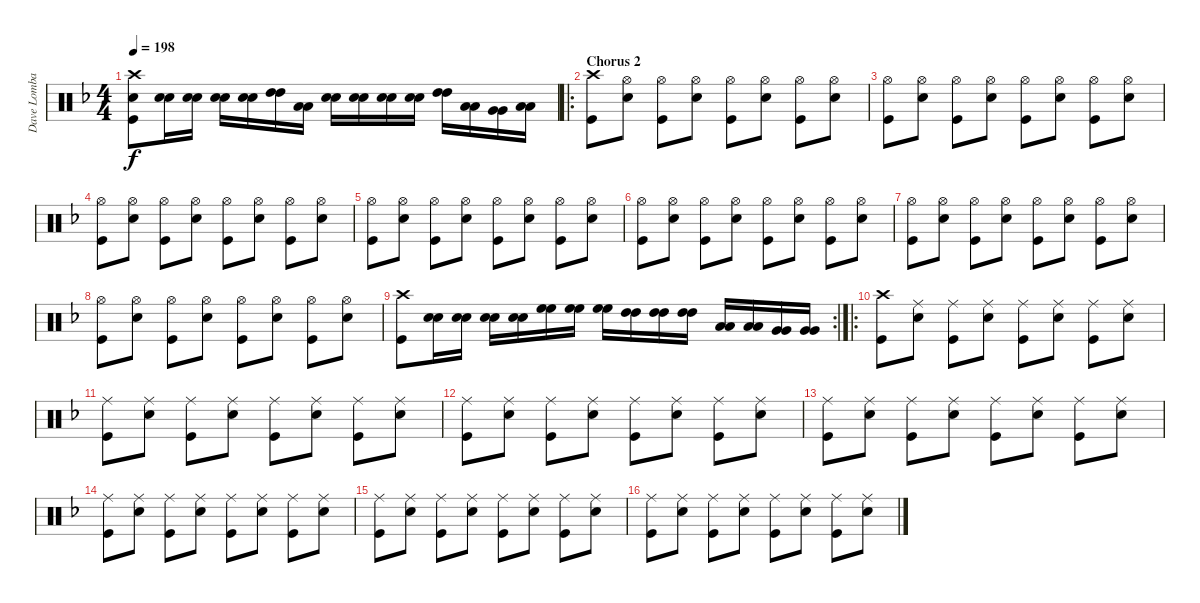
\track ("Dave Lombardo - Drums" "Dave Lomba") {instrument percussion}
\staff {score}
\articulation defaults
\ts (4 4)
\tempo 198
\clef neutral
\ks f
("Crash high (hit)" "Snare (hit) 2" "Kick (hit)").8{dy f} ("Snare (hit) 2" "Snare (hit) 2").16 ("Snare (hit) 2" "Snare (hit) 2").16 ("Snare (hit) 2" "Snare (hit) 2").16 ("Snare (hit) 2" "Snare (hit) 2").16 ("High Tom (hit)" "High Tom (hit)").16 ("Low Tom (hit)" "Low Tom (hit)").16 ("Snare (hit) 2" "Snare (hit) 2").16 ("Snare (hit) 2" "Snare (hit) 2").16 ("Snare (hit) 2" "Snare (hit) 2").16 ("Snare (hit) 2" "Snare (hit) 2").16 ("High Tom (hit)" "High Tom (hit)").16 ("Low Tom (hit)" "Low Tom (hit)").16 ("Very Low Tom (hit)" "Very Low Tom (hit)").16 ("Low Floor Tom (hit)" "Low Floor Tom (hit)").16 |
\ro
\section ("" "Chorus 2")
("Crash high (hit)" "Kick (hit)").8 ("Hi-Hat (open)" "Snare (hit) 2").8 ("Hi-Hat (open)" "Kick (hit)").8 ("Hi-Hat (open)" "Snare (hit) 2").8 ("Hi-Hat (open)" "Kick (hit)").8 ("Hi-Hat (open)" "Snare (hit) 2").8 ("Hi-Hat (open)" "Kick (hit)").8 ("Hi-Hat (open)" "Snare (hit) 2").8 |
("Hi-Hat (open)" "Kick (hit)").8 ("Hi-Hat (open)" "Snare (hit) 2").8 ("Hi-Hat (open)" "Kick (hit)").8 ("Hi-Hat (open)" "Snare (hit) 2").8 ("Hi-Hat (open)" "Kick (hit)").8 ("Hi-Hat (open)" "Snare (hit) 2").8 ("Hi-Hat (open)" "Kick (hit)").8 ("Hi-Hat (open)" "Snare (hit) 2").8 |
("Hi-Hat (open)" "Kick (hit)").8 ("Hi-Hat (open)" "Snare (hit) 2").8 ("Hi-Hat (open)" "Kick (hit)").8 ("Hi-Hat (open)" "Snare (hit) 2").8 ("Hi-Hat (open)" "Kick (hit)").8 ("Hi-Hat (open)" "Snare (hit) 2").8 ("Hi-Hat (open)" "Kick (hit)").8 ("Hi-Hat (open)" "Snare (hit) 2").8 |
("Hi-Hat (open)" "Kick (hit)").8 ("Hi-Hat (open)" "Snare (hit) 2").8 ("Hi-Hat (open)" "Kick (hit)").8 ("Hi-Hat (open)" "Snare (hit) 2").8 ("Hi-Hat (open)" "Kick (hit)").8 ("Hi-Hat (open)" "Snare (hit) 2").8 ("Hi-Hat (open)" "Kick (hit)").8 ("Hi-Hat (open)" "Snare (hit) 2").8 |
("Hi-Hat (open)" "Kick (hit)").8 ("Hi-Hat (open)" "Snare (hit) 2").8 ("Hi-Hat (open)" "Kick (hit)").8 ("Hi-Hat (open)" "Snare (hit) 2").8 ("Hi-Hat (open)" "Kick (hit)").8 ("Hi-Hat (open)" "Snare (hit) 2").8 ("Hi-Hat (open)" "Kick (hit)").8 ("Hi-Hat (open)" "Snare (hit) 2").8 |
("Hi-Hat (open)" "Kick (hit)").8 ("Hi-Hat (open)" "Snare (hit) 2").8 ("Hi-Hat (open)" "Kick (hit)").8 ("Hi-Hat (open)" "Snare (hit) 2").8 ("Hi-Hat (open)" "Kick (hit)").8 ("Hi-Hat (open)" "Snare (hit) 2").8 ("Hi-Hat (open)" "Kick (hit)").8 ("Hi-Hat (open)" "Snare (hit) 2").8 |
("Hi-Hat (open)" "Kick (hit)").8 ("Hi-Hat (open)" "Snare (hit) 2").8 ("Hi-Hat (open)" "Kick (hit)").8 ("Hi-Hat (open)" "Snare (hit) 2").8 ("Hi-Hat (open)" "Kick (hit)").8 ("Hi-Hat (open)" "Snare (hit) 2").8 ("Hi-Hat (open)" "Kick (hit)").8 ("Hi-Hat (open)" "Snare (hit) 2").8 |
\rc 2
("Crash high (hit)" "Kick (hit)").8 ("Snare (hit) 2" "Snare (hit) 2").16 ("Snare (hit) 2" "Snare (hit) 2").16 ("Snare (hit) 2" "Snare (hit) 2").16 ("Snare (hit) 2" "Snare (hit) 2").16 ("High Floor Tom (hit)" "High Floor Tom (hit)").16 ("High Floor Tom (hit)" "High Floor Tom (hit)").16 ("High Floor Tom (hit)" "High Floor Tom (hit)").16 ("High Tom (hit)" "High Tom (hit)").16 ("High Tom (hit)" "High Tom (hit)").16 ("High Tom (hit)" "High Tom (hit)").16 ("Low Tom (hit)" "Low Tom (hit)").16 ("Low Tom (hit)" "Low Tom (hit)").16 ("Very Low Tom (hit)" "Very Low Tom (hit)").16 ("Very Low Tom (hit)" "Very Low Tom (hit)").16 |
\ro
("Crash high (hit)" "Kick (hit)").8 ("Ride (middle)" "Snare (hit) 2").8 ("Ride (middle)" "Kick (hit)").8 ("Ride (middle)" "Snare (hit) 2").8 ("Ride (middle)" "Kick (hit)").8 ("Ride (middle)" "Snare (hit) 2").8 ("Ride (middle)" "Kick (hit)").8 ("Ride (middle)" "Snare (hit) 2").8 |
("Ride (middle)" "Kick (hit)").8 ("Ride (middle)" "Snare (hit) 2").8 ("Ride (middle)" "Kick (hit)").8 ("Ride (middle)" "Snare (hit) 2").8 ("Ride (middle)" "Kick (hit)").8 ("Ride (middle)" "Snare (hit) 2").8 ("Ride (middle)" "Kick (hit)").8 ("Ride (middle)" "Snare (hit) 2").8 |
("Ride (middle)" "Kick (hit)").8 ("Ride (middle)" "Snare (hit) 2").8 ("Ride (middle)" "Kick (hit)").8 ("Ride (middle)" "Snare (hit) 2").8 ("Ride (middle)" "Kick (hit)").8 ("Ride (middle)" "Snare (hit) 2").8 ("Ride (middle)" "Kick (hit)").8 ("Ride (middle)" "Snare (hit) 2").8 |
("Ride (middle)" "Kick (hit)").8 ("Ride (middle)" "Snare (hit) 2").8 ("Ride (middle)" "Kick (hit)").8 ("Ride (middle)" "Snare (hit) 2").8 ("Ride (middle)" "Kick (hit)").8 ("Ride (middle)" "Snare (hit) 2").8 ("Ride (middle)" "Kick (hit)").8 ("Ride (middle)" "Snare (hit) 2").8 |
("Ride (middle)" "Kick (hit)").8 ("Ride (middle)" "Snare (hit) 2").8 ("Ride (middle)" "Kick (hit)").8 ("Ride (middle)" "Snare (hit) 2").8 ("Ride (middle)" "Kick (hit)").8 ("Ride (middle)" "Snare (hit) 2").8 ("Ride (middle)" "Kick (hit)").8 ("Ride (middle)" "Snare (hit) 2").8 |
("Ride (middle)" "Kick (hit)").8 ("Ride (middle)" "Snare (hit) 2").8 ("Ride (middle)" "Kick (hit)").8 ("Ride (middle)" "Snare (hit) 2").8 ("Ride (middle)" "Kick (hit)").8 ("Ride (middle)" "Snare (hit) 2").8 ("Ride (middle)" "Kick (hit)").8 ("Ride (middle)" "Snare (hit) 2").8 |
("Ride (middle)" "Kick (hit)").8 ("Ride (middle)" "Snare (hit) 2").8 ("Ride (middle)" "Kick (hit)").8 ("Ride (middle)" "Snare (hit) 2").8 ("Ride (middle)" "Kick (hit)").8 ("Ride (middle)" "Snare (hit) 2").8 ("Ride (middle)" "Kick (hit)").8 ("Ride (middle)" "Snare (hit) 2").8
